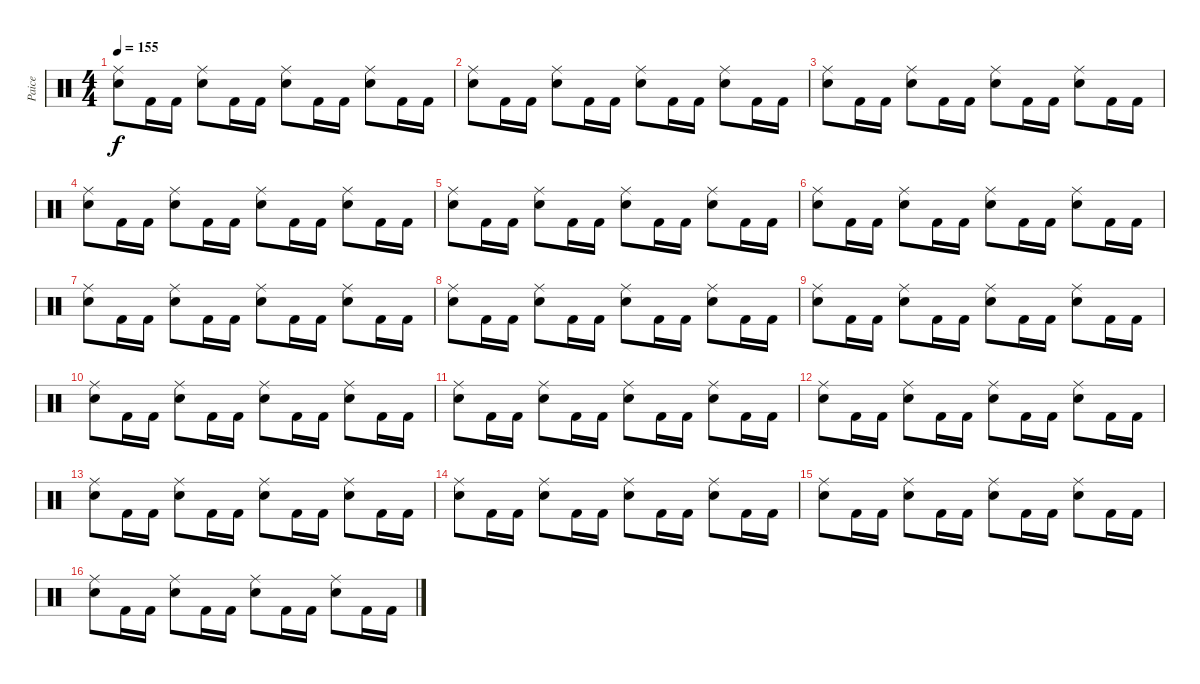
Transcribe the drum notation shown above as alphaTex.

\track ("Paice" "Paice") {instrument percussion}
\staff {score}
\articulation defaults
\ts (4 4)
\tempo 155
\clef neutral
\ks c
("Ride (middle)" "Snare (hit) 2").8{dy f} "Kick (hit) 2".16 "Kick (hit) 2".16 ("Ride (middle)" "Snare (hit) 2").8 "Kick (hit) 2".16 "Kick (hit) 2".16 ("Ride (middle)" "Snare (hit) 2").8 "Kick (hit) 2".16 "Kick (hit) 2".16 ("Ride (middle)" "Snare (hit) 2").8 "Kick (hit) 2".16 "Kick (hit) 2".16 |
("Ride (middle)" "Snare (hit) 2").8 "Kick (hit) 2".16 "Kick (hit) 2".16 ("Ride (middle)" "Snare (hit) 2").8 "Kick (hit) 2".16 "Kick (hit) 2".16 ("Ride (middle)" "Snare (hit) 2").8 "Kick (hit) 2".16 "Kick (hit) 2".16 ("Ride (middle)" "Snare (hit) 2").8 "Kick (hit) 2".16 "Kick (hit) 2".16 |
("Ride (middle)" "Snare (hit) 2").8 "Kick (hit) 2".16 "Kick (hit) 2".16 ("Ride (middle)" "Snare (hit) 2").8 "Kick (hit) 2".16 "Kick (hit) 2".16 ("Ride (middle)" "Snare (hit) 2").8 "Kick (hit) 2".16 "Kick (hit) 2".16 ("Ride (middle)" "Snare (hit) 2").8 "Kick (hit) 2".16 "Kick (hit) 2".16 |
("Ride (middle)" "Snare (hit) 2").8 "Kick (hit) 2".16 "Kick (hit) 2".16 ("Ride (middle)" "Snare (hit) 2").8 "Kick (hit) 2".16 "Kick (hit) 2".16 ("Ride (middle)" "Snare (hit) 2").8 "Kick (hit) 2".16 "Kick (hit) 2".16 ("Ride (middle)" "Snare (hit) 2").8 "Kick (hit) 2".16 "Kick (hit) 2".16 |
("Ride (middle)" "Snare (hit) 2").8 "Kick (hit) 2".16 "Kick (hit) 2".16 ("Ride (middle)" "Snare (hit) 2").8 "Kick (hit) 2".16 "Kick (hit) 2".16 ("Ride (middle)" "Snare (hit) 2").8 "Kick (hit) 2".16 "Kick (hit) 2".16 ("Ride (middle)" "Snare (hit) 2").8 "Kick (hit) 2".16 "Kick (hit) 2".16 |
("Ride (middle)" "Snare (hit) 2").8 "Kick (hit) 2".16 "Kick (hit) 2".16 ("Ride (middle)" "Snare (hit) 2").8 "Kick (hit) 2".16 "Kick (hit) 2".16 ("Ride (middle)" "Snare (hit) 2").8 "Kick (hit) 2".16 "Kick (hit) 2".16 ("Ride (middle)" "Snare (hit) 2").8 "Kick (hit) 2".16 "Kick (hit) 2".16 |
("Ride (middle)" "Snare (hit) 2").8 "Kick (hit) 2".16 "Kick (hit) 2".16 ("Ride (middle)" "Snare (hit) 2").8 "Kick (hit) 2".16 "Kick (hit) 2".16 ("Ride (middle)" "Snare (hit) 2").8 "Kick (hit) 2".16 "Kick (hit) 2".16 ("Ride (middle)" "Snare (hit) 2").8 "Kick (hit) 2".16 "Kick (hit) 2".16 |
("Ride (middle)" "Snare (hit) 2").8 "Kick (hit) 2".16 "Kick (hit) 2".16 ("Ride (middle)" "Snare (hit) 2").8 "Kick (hit) 2".16 "Kick (hit) 2".16 ("Ride (middle)" "Snare (hit) 2").8 "Kick (hit) 2".16 "Kick (hit) 2".16 ("Ride (middle)" "Snare (hit) 2").8 "Kick (hit) 2".16 "Kick (hit) 2".16 |
("Ride (middle)" "Snare (hit) 2").8 "Kick (hit) 2".16 "Kick (hit) 2".16 ("Ride (middle)" "Snare (hit) 2").8 "Kick (hit) 2".16 "Kick (hit) 2".16 ("Ride (middle)" "Snare (hit) 2").8 "Kick (hit) 2".16 "Kick (hit) 2".16 ("Ride (middle)" "Snare (hit) 2").8 "Kick (hit) 2".16 "Kick (hit) 2".16 |
("Ride (middle)" "Snare (hit) 2").8 "Kick (hit) 2".16 "Kick (hit) 2".16 ("Ride (middle)" "Snare (hit) 2").8 "Kick (hit) 2".16 "Kick (hit) 2".16 ("Ride (middle)" "Snare (hit) 2").8 "Kick (hit) 2".16 "Kick (hit) 2".16 ("Ride (middle)" "Snare (hit) 2").8 "Kick (hit) 2".16 "Kick (hit) 2".16 |
("Ride (middle)" "Snare (hit) 2").8 "Kick (hit) 2".16 "Kick (hit) 2".16 ("Ride (middle)" "Snare (hit) 2").8 "Kick (hit) 2".16 "Kick (hit) 2".16 ("Ride (middle)" "Snare (hit) 2").8 "Kick (hit) 2".16 "Kick (hit) 2".16 ("Ride (middle)" "Snare (hit) 2").8 "Kick (hit) 2".16 "Kick (hit) 2".16 |
("Ride (middle)" "Snare (hit) 2").8 "Kick (hit) 2".16 "Kick (hit) 2".16 ("Ride (middle)" "Snare (hit) 2").8 "Kick (hit) 2".16 "Kick (hit) 2".16 ("Ride (middle)" "Snare (hit) 2").8 "Kick (hit) 2".16 "Kick (hit) 2".16 ("Ride (middle)" "Snare (hit) 2").8 "Kick (hit) 2".16 "Kick (hit) 2".16 |
("Ride (middle)" "Snare (hit) 2").8 "Kick (hit) 2".16 "Kick (hit) 2".16 ("Ride (middle)" "Snare (hit) 2").8 "Kick (hit) 2".16 "Kick (hit) 2".16 ("Ride (middle)" "Snare (hit) 2").8 "Kick (hit) 2".16 "Kick (hit) 2".16 ("Ride (middle)" "Snare (hit) 2").8 "Kick (hit) 2".16 "Kick (hit) 2".16 |
("Ride (middle)" "Snare (hit) 2").8 "Kick (hit) 2".16 "Kick (hit) 2".16 ("Ride (middle)" "Snare (hit) 2").8 "Kick (hit) 2".16 "Kick (hit) 2".16 ("Ride (middle)" "Snare (hit) 2").8 "Kick (hit) 2".16 "Kick (hit) 2".16 ("Ride (middle)" "Snare (hit) 2").8 "Kick (hit) 2".16 "Kick (hit) 2".16 |
("Ride (middle)" "Snare (hit) 2").8 "Kick (hit) 2".16 "Kick (hit) 2".16 ("Ride (middle)" "Snare (hit) 2").8 "Kick (hit) 2".16 "Kick (hit) 2".16 ("Ride (middle)" "Snare (hit) 2").8 "Kick (hit) 2".16 "Kick (hit) 2".16 ("Ride (middle)" "Snare (hit) 2").8 "Kick (hit) 2".16 "Kick (hit) 2".16 |
("Ride (middle)" "Snare (hit) 2").8 "Kick (hit) 2".16 "Kick (hit) 2".16 ("Ride (middle)" "Snare (hit) 2").8 "Kick (hit) 2".16 "Kick (hit) 2".16 ("Ride (middle)" "Snare (hit) 2").8 "Kick (hit) 2".16 "Kick (hit) 2".16 ("Ride (middle)" "Snare (hit) 2").8 "Kick (hit) 2".16 "Kick (hit) 2".16
